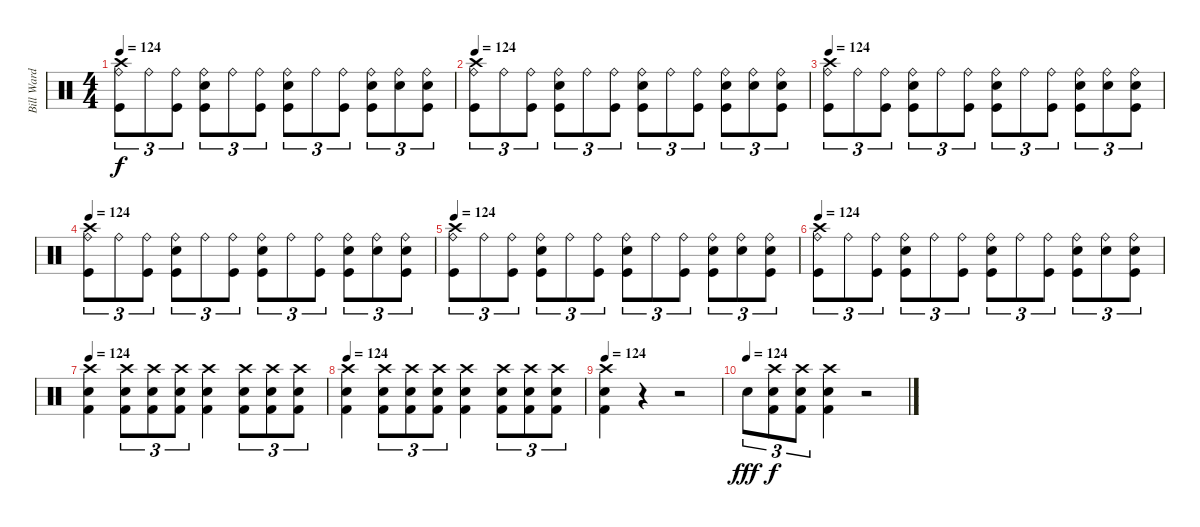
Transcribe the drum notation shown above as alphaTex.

\track ("Bill Ward" "Bill Ward") {instrument percussion}
\staff {score}
\articulation defaults
\ts (4 4)
\tempo 124
\clef neutral
\ks c
("Crash high (hit)" "Ride (bell)" "Kick (hit)").8{tu (3 2) dy f} "Ride (bell)".8{tu (3 2)} ("Ride (bell)" "Kick (hit)").8{tu (3 2)} ("Ride (bell)" "Snare (hit) 2" "Kick (hit)").8{tu (3 2)} "Ride (bell)".8{tu (3 2)} ("Ride (bell)" "Kick (hit)").8{tu (3 2)} ("Ride (bell)" "Snare (hit) 2" "Kick (hit)").8{tu (3 2)} "Ride (bell)".8{tu (3 2)} ("Ride (bell)" "Kick (hit)").8{tu (3 2)} ("Ride (bell)" "Snare (hit) 2" "Kick (hit)").8{tu (3 2)} ("Ride (bell)" "Snare (hit) 2").8{tu (3 2)} ("Ride (bell)" "Snare (hit) 2" "Kick (hit)").8{tu (3 2)} |
\tempo 124
("Crash high (hit)" "Ride (bell)" "Kick (hit)").8{tu (3 2)} "Ride (bell)".8{tu (3 2)} ("Ride (bell)" "Kick (hit)").8{tu (3 2)} ("Ride (bell)" "Snare (hit) 2" "Kick (hit)").8{tu (3 2)} "Ride (bell)".8{tu (3 2)} ("Ride (bell)" "Kick (hit)").8{tu (3 2)} ("Ride (bell)" "Snare (hit) 2" "Kick (hit)").8{tu (3 2)} "Ride (bell)".8{tu (3 2)} ("Ride (bell)" "Kick (hit)").8{tu (3 2)} ("Ride (bell)" "Snare (hit) 2" "Kick (hit)").8{tu (3 2)} ("Ride (bell)" "Snare (hit) 2").8{tu (3 2)} ("Ride (bell)" "Snare (hit) 2" "Kick (hit)").8{tu (3 2)} |
\tempo 124
("Crash high (hit)" "Ride (bell)" "Kick (hit)").8{tu (3 2)} "Ride (bell)".8{tu (3 2)} ("Ride (bell)" "Kick (hit)").8{tu (3 2)} ("Ride (bell)" "Snare (hit) 2" "Kick (hit)").8{tu (3 2)} "Ride (bell)".8{tu (3 2)} ("Ride (bell)" "Kick (hit)").8{tu (3 2)} ("Ride (bell)" "Snare (hit) 2" "Kick (hit)").8{tu (3 2)} "Ride (bell)".8{tu (3 2)} ("Ride (bell)" "Kick (hit)").8{tu (3 2)} ("Ride (bell)" "Snare (hit) 2" "Kick (hit)").8{tu (3 2)} ("Ride (bell)" "Snare (hit) 2").8{tu (3 2)} ("Ride (bell)" "Snare (hit) 2" "Kick (hit)").8{tu (3 2)} |
\tempo 124
("Crash high (hit)" "Ride (bell)" "Kick (hit)").8{tu (3 2)} "Ride (bell)".8{tu (3 2)} ("Ride (bell)" "Kick (hit)").8{tu (3 2)} ("Ride (bell)" "Snare (hit) 2" "Kick (hit)").8{tu (3 2)} "Ride (bell)".8{tu (3 2)} ("Ride (bell)" "Kick (hit)").8{tu (3 2)} ("Ride (bell)" "Snare (hit) 2" "Kick (hit)").8{tu (3 2)} "Ride (bell)".8{tu (3 2)} ("Ride (bell)" "Kick (hit)").8{tu (3 2)} ("Ride (bell)" "Snare (hit) 2" "Kick (hit)").8{tu (3 2)} ("Ride (bell)" "Snare (hit) 2").8{tu (3 2)} ("Ride (bell)" "Snare (hit) 2" "Kick (hit)").8{tu (3 2)} |
\tempo 124
("Crash high (hit)" "Ride (bell)" "Kick (hit)").8{tu (3 2)} "Ride (bell)".8{tu (3 2)} ("Ride (bell)" "Kick (hit)").8{tu (3 2)} ("Ride (bell)" "Snare (hit) 2" "Kick (hit)").8{tu (3 2)} "Ride (bell)".8{tu (3 2)} ("Ride (bell)" "Kick (hit)").8{tu (3 2)} ("Ride (bell)" "Snare (hit) 2" "Kick (hit)").8{tu (3 2)} "Ride (bell)".8{tu (3 2)} ("Ride (bell)" "Kick (hit)").8{tu (3 2)} ("Ride (bell)" "Snare (hit) 2" "Kick (hit)").8{tu (3 2)} ("Ride (bell)" "Snare (hit) 2").8{tu (3 2)} ("Ride (bell)" "Snare (hit) 2" "Kick (hit)").8{tu (3 2)} |
\tempo 124
("Crash high (hit)" "Ride (bell)" "Kick (hit)").8{tu (3 2)} "Ride (bell)".8{tu (3 2)} ("Ride (bell)" "Kick (hit)").8{tu (3 2)} ("Ride (bell)" "Snare (hit) 2" "Kick (hit)").8{tu (3 2)} "Ride (bell)".8{tu (3 2)} ("Ride (bell)" "Kick (hit)").8{tu (3 2)} ("Ride (bell)" "Snare (hit) 2" "Kick (hit)").8{tu (3 2)} "Ride (bell)".8{tu (3 2)} ("Ride (bell)" "Kick (hit)").8{tu (3 2)} ("Ride (bell)" "Snare (hit) 2" "Kick (hit)").8{tu (3 2)} ("Ride (bell)" "Snare (hit) 2").8{tu (3 2)} ("Ride (bell)" "Snare (hit) 2" "Kick (hit)").8{tu (3 2)} |
\tempo 124
("Crash high (hit)" "Snare (hit) 2" "Kick (hit) 2").4 ("Crash high (hit)" "Snare (hit) 2" "Kick (hit) 2").8{tu (3 2)} ("Crash high (hit)" "Snare (hit) 2" "Kick (hit) 2").8{tu (3 2)} ("Crash high (hit)" "Snare (hit) 2" "Kick (hit) 2").8{tu (3 2)} ("Crash high (hit)" "Snare (hit) 2" "Kick (hit) 2").4 ("Crash high (hit)" "Snare (hit) 2" "Kick (hit) 2").8{tu (3 2)} ("Crash high (hit)" "Snare (hit) 2" "Kick (hit) 2").8{tu (3 2)} ("Crash high (hit)" "Snare (hit) 2" "Kick (hit) 2").8{tu (3 2)} |
\tempo 124
("Crash high (hit)" "Snare (hit) 2" "Kick (hit) 2").4 ("Crash high (hit)" "Snare (hit) 2" "Kick (hit) 2").8{tu (3 2)} ("Crash high (hit)" "Snare (hit) 2" "Kick (hit) 2").8{tu (3 2)} ("Crash high (hit)" "Snare (hit) 2" "Kick (hit) 2").8{tu (3 2)} ("Crash high (hit)" "Snare (hit) 2" "Kick (hit) 2").4 ("Crash high (hit)" "Snare (hit) 2" "Kick (hit) 2").8{tu (3 2)} ("Crash high (hit)" "Snare (hit) 2" "Kick (hit) 2").8{tu (3 2)} ("Crash high (hit)" "Snare (hit) 2" "Kick (hit) 2").8{tu (3 2)} |
\tempo 124
("Crash high (hit)" "Snare (hit) 2" "Kick (hit) 2").4 r.4 r.2 |
\tempo (124)
"Snare (hit) 2".8{tu (3 2) dy fff} ("Crash high (hit)" "Snare (hit) 2" "Kick (hit) 2").8{tu (3 2) dy f} ("Crash high (hit)" "Snare (hit) 2" "Kick (hit) 2").8{tu (3 2)} ("Crash high (hit)" "Snare (hit) 2" "Kick (hit) 2").4 r.2
